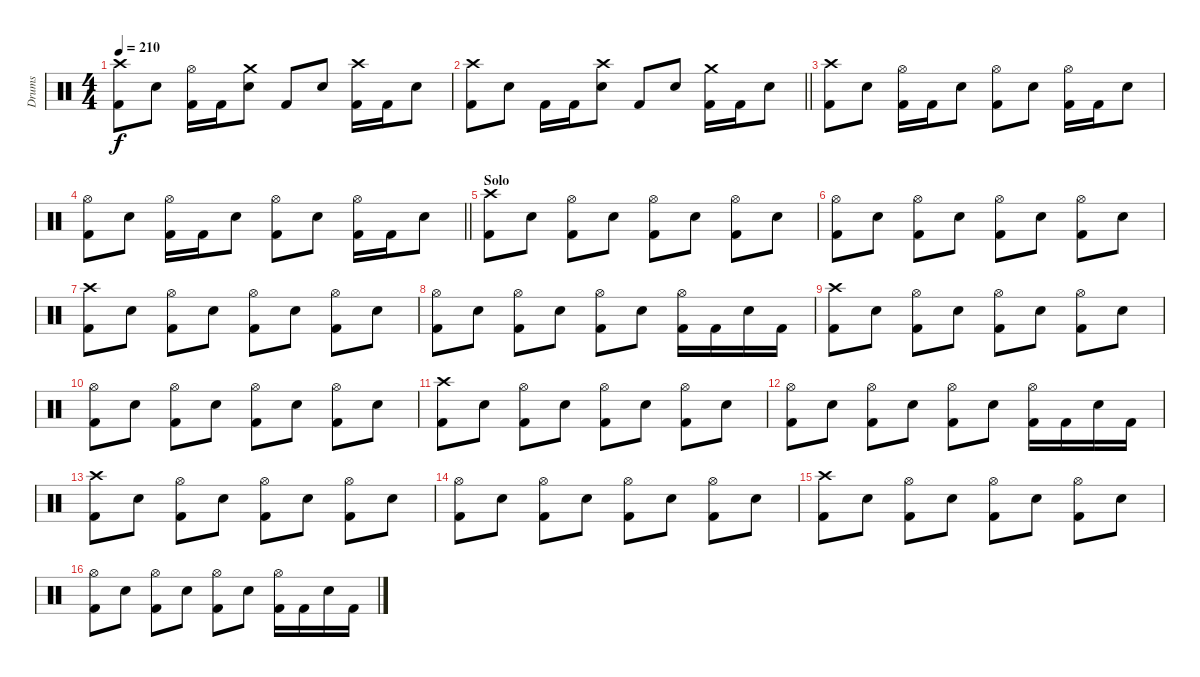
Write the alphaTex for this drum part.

\track ("Drums" "Drums") {instrument percussion}
\staff {score}
\articulation defaults
\ts (4 4)
\tempo 210
\clef neutral
\ks c
("Crash high (hit)" "Kick (hit) 2").8{dy f} "Snare (hit) 2".8 ("Hi-Hat (open)" "Kick (hit) 2").16 "Kick (hit) 2".16 ("Crash medium (hit)" "Snare (hit) 2").8 "Kick (hit) 2".8 "Snare (hit) 2".8 ("Crash high (hit)" "Kick (hit) 2").16 "Kick (hit) 2".16 "Snare (hit) 2".8 |
\barLineRight lightlight
("Crash high (hit)" "Kick (hit) 2").8 "Snare (hit) 2".8 "Kick (hit) 2".16 "Kick (hit) 2".16 ("Crash high (hit)" "Snare (hit) 2").8 "Kick (hit) 2".8 "Snare (hit) 2".8 ("Crash medium (hit)" "Kick (hit) 2").16 "Kick (hit) 2".16 "Snare (hit) 2".8 |
("Crash high (hit)" "Kick (hit) 2").8 "Snare (hit) 2".8 ("Hi-Hat (open)" "Kick (hit) 2").16 "Kick (hit) 2".16 "Snare (hit) 2".8 ("Hi-Hat (open)" "Kick (hit) 2").8 "Snare (hit) 2".8 ("Hi-Hat (open)" "Kick (hit) 2").16 "Kick (hit) 2".16 "Snare (hit) 2".8 |
\barLineRight lightlight
("Hi-Hat (open)" "Kick (hit) 2").8 "Snare (hit) 2".8 ("Hi-Hat (open)" "Kick (hit) 2").16 "Kick (hit) 2".16 "Snare (hit) 2".8 ("Hi-Hat (open)" "Kick (hit) 2").8 "Snare (hit) 2".8 ("Hi-Hat (open)" "Kick (hit) 2").16 "Kick (hit) 2".16 "Snare (hit) 2".8 |
\section ("" "Solo")
("Crash high (hit)" "Kick (hit) 2").8 "Snare (hit) 2".8 ("Hi-Hat (open)" "Kick (hit) 2").8 "Snare (hit) 2".8 ("Hi-Hat (open)" "Kick (hit) 2").8 "Snare (hit) 2".8 ("Hi-Hat (open)" "Kick (hit) 2").8 "Snare (hit) 2".8 |
("Hi-Hat (open)" "Kick (hit) 2").8 "Snare (hit) 2".8 ("Hi-Hat (open)" "Kick (hit) 2").8 "Snare (hit) 2".8 ("Hi-Hat (open)" "Kick (hit) 2").8 "Snare (hit) 2".8 ("Hi-Hat (open)" "Kick (hit) 2").8 "Snare (hit) 2".8 |
("Crash high (hit)" "Kick (hit) 2").8 "Snare (hit) 2".8 ("Hi-Hat (open)" "Kick (hit) 2").8 "Snare (hit) 2".8 ("Hi-Hat (open)" "Kick (hit) 2").8 "Snare (hit) 2".8 ("Hi-Hat (open)" "Kick (hit) 2").8 "Snare (hit) 2".8 |
("Hi-Hat (open)" "Kick (hit) 2").8 "Snare (hit) 2".8 ("Hi-Hat (open)" "Kick (hit) 2").8 "Snare (hit) 2".8 ("Hi-Hat (open)" "Kick (hit) 2").8 "Snare (hit) 2".8 ("Hi-Hat (open)" "Kick (hit) 2").16 "Kick (hit) 2".16 "Snare (hit) 2".16 "Kick (hit) 2".16 |
("Crash high (hit)" "Kick (hit) 2").8 "Snare (hit) 2".8 ("Hi-Hat (open)" "Kick (hit) 2").8 "Snare (hit) 2".8 ("Hi-Hat (open)" "Kick (hit) 2").8 "Snare (hit) 2".8 ("Hi-Hat (open)" "Kick (hit) 2").8 "Snare (hit) 2".8 |
("Hi-Hat (open)" "Kick (hit) 2").8 "Snare (hit) 2".8 ("Hi-Hat (open)" "Kick (hit) 2").8 "Snare (hit) 2".8 ("Hi-Hat (open)" "Kick (hit) 2").8 "Snare (hit) 2".8 ("Hi-Hat (open)" "Kick (hit) 2").8 "Snare (hit) 2".8 |
("Crash high (hit)" "Kick (hit) 2").8 "Snare (hit) 2".8 ("Hi-Hat (open)" "Kick (hit) 2").8 "Snare (hit) 2".8 ("Hi-Hat (open)" "Kick (hit) 2").8 "Snare (hit) 2".8 ("Hi-Hat (open)" "Kick (hit) 2").8 "Snare (hit) 2".8 |
("Hi-Hat (open)" "Kick (hit) 2").8 "Snare (hit) 2".8 ("Hi-Hat (open)" "Kick (hit) 2").8 "Snare (hit) 2".8 ("Hi-Hat (open)" "Kick (hit) 2").8 "Snare (hit) 2".8 ("Hi-Hat (open)" "Kick (hit) 2").16 "Kick (hit) 2".16 "Snare (hit) 2".16 "Kick (hit) 2".16 |
("Crash high (hit)" "Kick (hit) 2").8 "Snare (hit) 2".8 ("Hi-Hat (open)" "Kick (hit) 2").8 "Snare (hit) 2".8 ("Hi-Hat (open)" "Kick (hit) 2").8 "Snare (hit) 2".8 ("Hi-Hat (open)" "Kick (hit) 2").8 "Snare (hit) 2".8 |
("Hi-Hat (open)" "Kick (hit) 2").8 "Snare (hit) 2".8 ("Hi-Hat (open)" "Kick (hit) 2").8 "Snare (hit) 2".8 ("Hi-Hat (open)" "Kick (hit) 2").8 "Snare (hit) 2".8 ("Hi-Hat (open)" "Kick (hit) 2").8 "Snare (hit) 2".8 |
("Crash high (hit)" "Kick (hit) 2").8 "Snare (hit) 2".8 ("Hi-Hat (open)" "Kick (hit) 2").8 "Snare (hit) 2".8 ("Hi-Hat (open)" "Kick (hit) 2").8 "Snare (hit) 2".8 ("Hi-Hat (open)" "Kick (hit) 2").8 "Snare (hit) 2".8 |
("Hi-Hat (open)" "Kick (hit) 2").8 "Snare (hit) 2".8 ("Hi-Hat (open)" "Kick (hit) 2").8 "Snare (hit) 2".8 ("Hi-Hat (open)" "Kick (hit) 2").8 "Snare (hit) 2".8 ("Hi-Hat (open)" "Kick (hit) 2").16 "Kick (hit) 2".16 "Snare (hit) 2".16 "Kick (hit) 2".16
